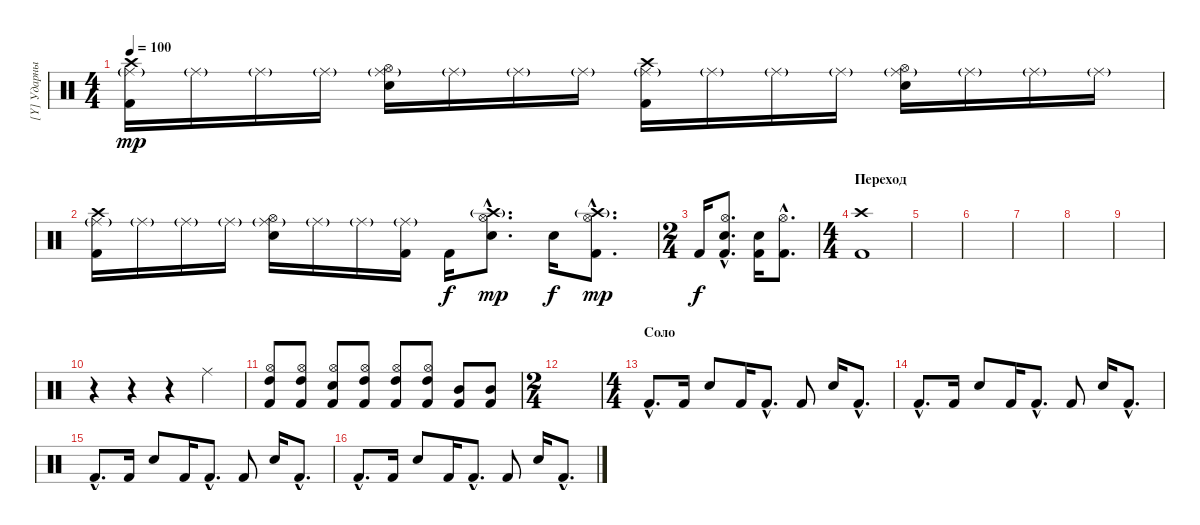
\track ("[Y] Ударные [Stewart]" "[Y] Ударны") {instrument percussion}
\staff {score}
\articulation defaults
\ts (4 4)
\tempo 100
\clef neutral
\ks c
("Crash high (hit)" "Ride (middle)"{g} "Kick (hit) 2").16{dy mp} "Ride (middle)"{g}.16 "Ride (middle)"{g}.16 "Ride (middle)"{g}.16 ("Ride (middle)"{g} "Hi-Hat (open)" "Electric Snare (hit)").16 "Ride (middle)"{g}.16 "Ride (middle)"{g}.16 "Ride (middle)"{g}.16 ("Crash high (hit)" "Ride (middle)"{g} "Kick (hit) 2").16 "Ride (middle)"{g}.16 "Ride (middle)"{g}.16 "Ride (middle)"{g}.16 ("Ride (middle)"{g} "Hi-Hat (open)" "Electric Snare (hit)").16 "Ride (middle)"{g}.16 "Ride (middle)"{g}.16 "Ride (middle)"{g}.16 |
("Crash high (hit)" "Ride (middle)"{g} "Kick (hit) 2").16 "Ride (middle)"{g}.16 "Ride (middle)"{g}.16 "Ride (middle)"{g}.16 ("Ride (middle)"{g} "Hi-Hat (open)" "Electric Snare (hit)").16 "Ride (middle)"{g}.16 "Ride (middle)"{g}.16 ("Ride (middle)"{g} "Kick (hit) 2").16 "Kick (hit) 2".16{dy f} ("Crash high (hit)"{g hac} "Hi-Hat (open)"{hac} "Electric Snare (hit)"{hac}).8{d dy mp} "Electric Snare (hit)".16{dy f} ("Crash high (hit)"{g hac} "Hi-Hat (open)"{hac} "Kick (hit) 2"{hac}).8{d dy mp} |
\ts (2 4)
"Kick (hit) 2".16{dy f} ("Hi-Hat (open)"{hac} "Electric Snare (hit)"{hac} "Kick (hit) 2"{hac}).8{d} ("Electric Snare (hit)" "Kick (hit) 2").16 ("Hi-Hat (open)"{hac} "Kick (hit) 2"{hac}).8{d} |
\ts (4 4)
\section ("" "Переход")
("Crash high (hit)" "Kick (hit) 2").1 |
|
|
|
|
|
r.4 r.4 r.4 "Ride (middle)".4 |
("Hi-Hat (open)" "High Tom (hit)" "Kick (hit) 2").8 ("Hi-Hat (open)" "High Tom (hit)" "Kick (hit) 2").8 ("Hi-Hat (open)" "Electric Snare (hit)" "Kick (hit) 2").8 ("Hi-Hat (open)" "High Tom (hit)" "Kick (hit) 2").8 ("Hi-Hat (open)" "High Tom (hit)" "Kick (hit) 2").8 ("Hi-Hat (open)" "High Tom (hit)" "Kick (hit) 2").8 ("Mid Tom (hit)" "Kick (hit) 2").8 ("Mid Tom (hit)" "Kick (hit) 2").8 |
\ts (2 4)
|
\ts (4 4)
\section ("" "Соло")
"Kick (hit) 2"{hac}.8{d} "Kick (hit) 2".16 "Electric Snare (hit)".8 "Kick (hit) 2".16 "Kick (hit) 2"{hac}.8{d} "Kick (hit) 2".8 "Electric Snare (hit)".16 "Kick (hit) 2"{hac}.8{d} |
"Kick (hit) 2"{hac}.8{d} "Kick (hit) 2".16 "Electric Snare (hit)".8 "Kick (hit) 2".16 "Kick (hit) 2"{hac}.8{d} "Kick (hit) 2".8 "Electric Snare (hit)".16 "Kick (hit) 2"{hac}.8{d} |
"Kick (hit) 2"{hac}.8{d} "Kick (hit) 2".16 "Electric Snare (hit)".8 "Kick (hit) 2".16 "Kick (hit) 2"{hac}.8{d} "Kick (hit) 2".8 "Electric Snare (hit)".16 "Kick (hit) 2"{hac}.8{d} |
"Kick (hit) 2"{hac}.8{d} "Kick (hit) 2".16 "Electric Snare (hit)".8 "Kick (hit) 2".16 "Kick (hit) 2"{hac}.8{d} "Kick (hit) 2".8 "Electric Snare (hit)".16 "Kick (hit) 2"{hac}.8{d}
